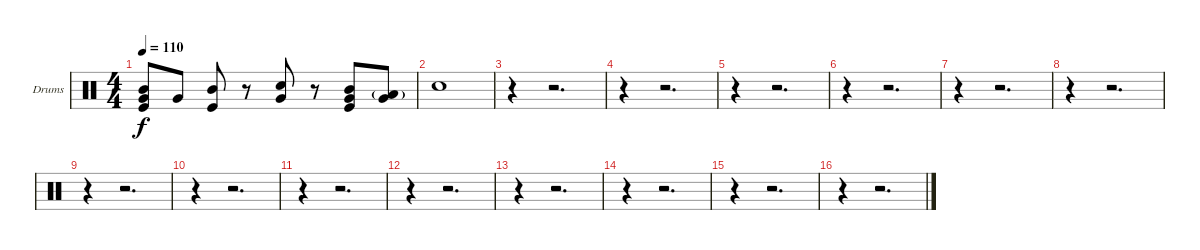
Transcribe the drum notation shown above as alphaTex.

\defaultSystemsLayout 4
\bracketExtendMode groupsimilarinstruments
\firstSystemTrackNameOrientation horizontal
\otherSystemsTrackNameOrientation horizontal
\track ("Drumkit" "Drums") {instrument percussion}
\staff {score}
\articulation defaults
\ts (4 4)
\tempo 110
\clef neutral
\scale
0.333333
\ks c
("Mid Tom (hit)" "Very Low Tom (hit)" "Kick (hit)").8{dy f} "Very Low Tom (hit)".8 ("Mid Tom (hit)" "Kick (hit)").8 r.8 ("Very Low Tom (hit)" "Snare (hit) 2").8 r.8 ("Mid Tom (hit)" "Very Low Tom (hit)" "Kick (hit)").8 ("Low Tom (hit)"{g} "Very Low Tom (hit)").8 |
\scale
0.333333 "Snare (hit) 2".1 |
\scale
0.333333 r.4 r.2{d} |
\scale
0.333333 r.4 r.2{d} |
\scale
0.333333 r.4 r.2{d} |
\scale
0.333333 r.4 r.2{d} |
\scale
0.333333 r.4 r.2{d} |
\scale
0.333333 r.4 r.2{d} |
\scale
0.333333 r.4 r.2{d} |
\scale
0.333333 r.4 r.2{d} |
\scale
0.333333 r.4 r.2{d} |
\scale
0.333333 r.4 r.2{d} |
\scale
0.333333 r.4 r.2{d} |
\scale
0.333333 r.4 r.2{d} |
\scale
0.333333 r.4 r.2{d} |
\scale
0.333333 r.4 r.2{d}
